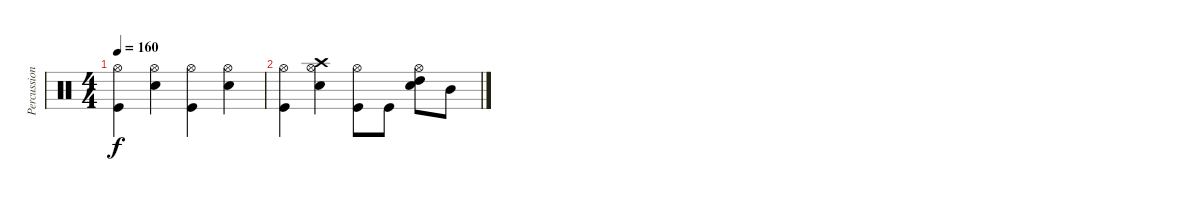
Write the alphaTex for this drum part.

\track ("Percussion" "Percussion") {instrument percussion}
\staff {score}
\articulation defaults
\ts (4 4)
\tempo 160
\clef neutral
\ks c
("Hi-Hat (open)" "Kick (hit)").4{dy f} ("Hi-Hat (open)" "Electric Snare (hit)").4 ("Hi-Hat (open)" "Kick (hit)").4 ("Hi-Hat (open)" "Electric Snare (hit)").4 |
("Hi-Hat (open)" "Kick (hit)").4 ("Crash high (hit)" "Hi-Hat (open)" "Electric Snare (hit)").4 ("Hi-Hat (open)" "Kick (hit)").8 "Kick (hit)".8 ("High Tom (hit)" "Hi-Hat (open)" "Electric Snare (hit)").8 "Mid Tom (hit)".8
